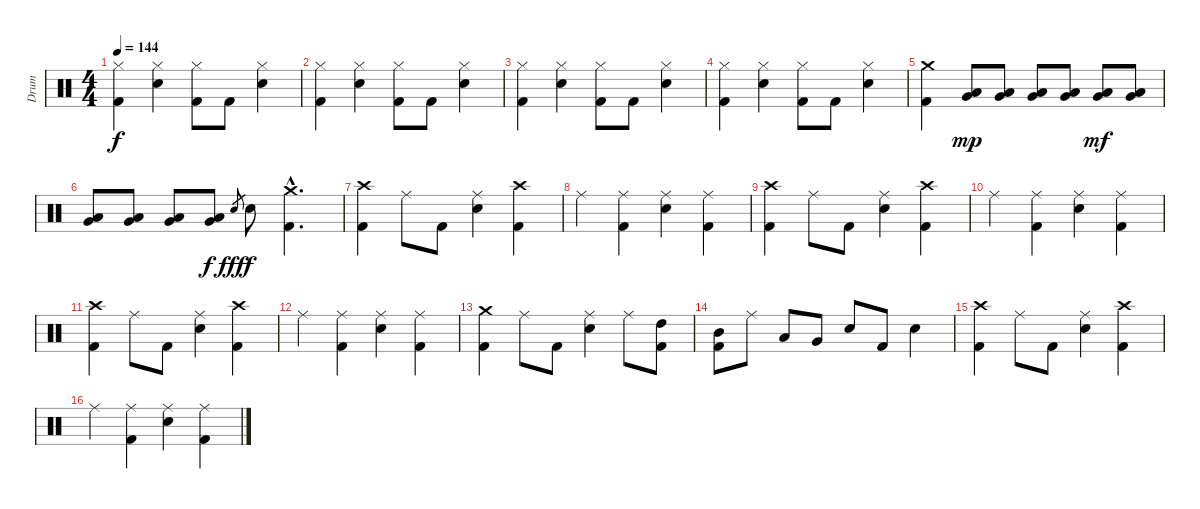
\track ("Drum" "Drum") {instrument percussion}
\staff {score}
\articulation defaults
\ts (4 4)
\tempo 144
\clef neutral
\ks c
("Hi-Hat (closed)" "Kick (hit) 2").4{dy f} ("Hi-Hat (closed)" "Electric Snare (hit)").4 ("Hi-Hat (closed)" "Kick (hit) 2").8 "Kick (hit) 2".8 ("Hi-Hat (closed)" "Electric Snare (hit)").4 |
("Hi-Hat (closed)" "Kick (hit) 2").4 ("Hi-Hat (closed)" "Electric Snare (hit)").4 ("Hi-Hat (closed)" "Kick (hit) 2").8 "Kick (hit) 2".8 ("Hi-Hat (closed)" "Electric Snare (hit)").4 |
("Hi-Hat (closed)" "Kick (hit) 2").4 ("Hi-Hat (closed)" "Electric Snare (hit)").4 ("Hi-Hat (closed)" "Kick (hit) 2").8 "Kick (hit) 2".8 ("Hi-Hat (closed)" "Electric Snare (hit)").4 |
("Hi-Hat (closed)" "Kick (hit) 2").4 ("Hi-Hat (closed)" "Electric Snare (hit)").4 ("Hi-Hat (closed)" "Kick (hit) 2").8 "Kick (hit) 2".8 ("Hi-Hat (closed)" "Electric Snare (hit)").4 |
("Crash medium (hit)" "Kick (hit) 2").4 ("Low Tom (hit)" "Very Low Tom (hit)").8{dy mp} ("Low Tom (hit)" "Very Low Tom (hit)").8 ("Low Tom (hit)" "Very Low Tom (hit)").8 ("Low Tom (hit)" "Very Low Tom (hit)").8 ("Low Tom (hit)" "Very Low Tom (hit)").8{dy mf} ("Low Tom (hit)" "Very Low Tom (hit)").8 |
("Low Tom (hit)" "Very Low Tom (hit)").8 ("Low Tom (hit)" "Very Low Tom (hit)").8 ("Low Tom (hit)" "Very Low Tom (hit)").8 ("Low Tom (hit)" "Very Low Tom (hit)").8{dy f} "Electric Snare (hit)".8{gr dy fff} "Electric Snare (hit)".8{dy f} ("Crash medium (hit)"{hac} "Kick (hit) 2"{hac}).4{d} |
("Crash high (hit)" "Kick (hit) 2").4 "Ride (middle)".8 "Kick (hit) 2".8 ("Ride (middle)" "Electric Snare (hit)").4 ("Crash high (hit)" "Kick (hit) 2").4 |
"Ride (middle)".4 ("Ride (middle)" "Kick (hit) 2").4 ("Ride (middle)" "Electric Snare (hit)").4 ("Ride (middle)" "Kick (hit) 2").4 |
("Crash high (hit)" "Kick (hit) 2").4 "Ride (middle)".8 "Kick (hit) 2".8 ("Ride (middle)" "Electric Snare (hit)").4 ("Crash high (hit)" "Kick (hit) 2").4 |
"Ride (middle)".4 ("Ride (middle)" "Kick (hit) 2").4 ("Ride (middle)" "Electric Snare (hit)").4 ("Ride (middle)" "Kick (hit) 2").4 |
("Crash high (hit)" "Kick (hit) 2").4 "Ride (middle)".8 "Kick (hit) 2".8 ("Ride (middle)" "Electric Snare (hit)").4 ("Crash high (hit)" "Kick (hit) 2").4 |
"Ride (middle)".4 ("Ride (middle)" "Kick (hit) 2").4 ("Ride (middle)" "Electric Snare (hit)").4 ("Ride (middle)" "Kick (hit) 2").4 |
("Crash medium (hit)" "Kick (hit) 2").4 "Ride (middle)".8 "Kick (hit) 2".8 ("Ride (middle)" "Electric Snare (hit)").4 "Ride (middle)".8 ("High Tom (hit)" "Kick (hit) 2").8 |
("Mid Tom (hit)" "Kick (hit) 2").8 "Ride (middle)".8 "Low Tom (hit)".8 "Very Low Tom (hit)".8 "Electric Snare (hit)".8 "Kick (hit) 2".8 "Electric Snare (hit)".4 |
("Crash high (hit)" "Kick (hit) 2").4 "Ride (middle)".8 "Kick (hit) 2".8 ("Ride (middle)" "Electric Snare (hit)").4 ("Crash high (hit)" "Kick (hit) 2").4 |
"Ride (middle)".4 ("Ride (middle)" "Kick (hit) 2").4 ("Ride (middle)" "Electric Snare (hit)").4 ("Ride (middle)" "Kick (hit) 2").4
